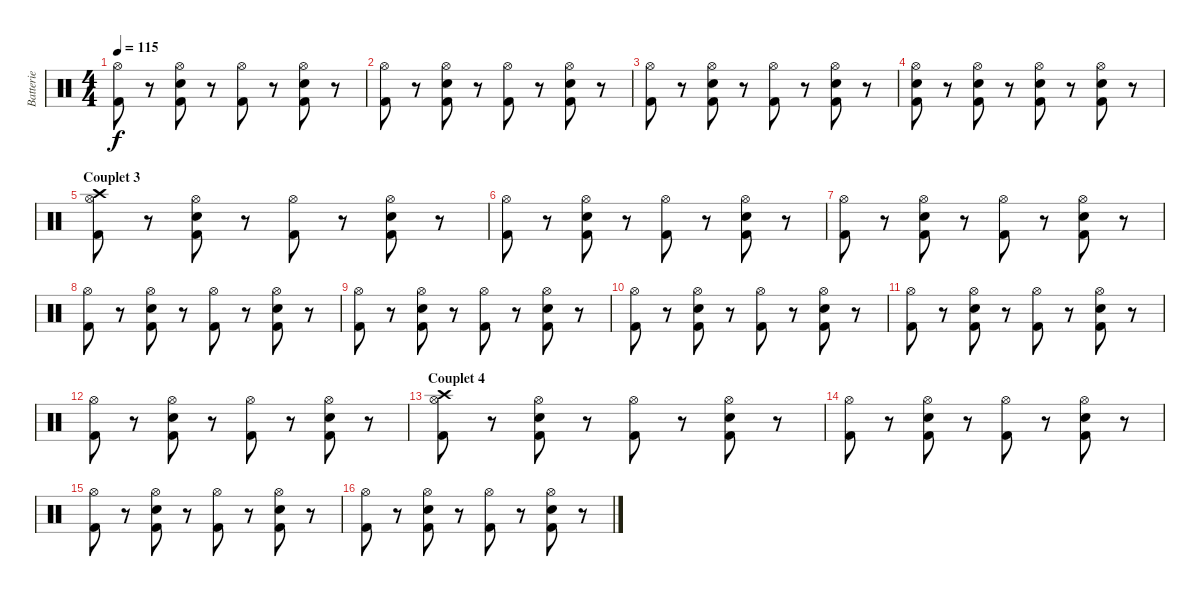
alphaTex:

\track ("Batterie" "Batterie") {instrument percussion}
\staff {score}
\articulation defaults
\ts (4 4)
\tempo 115
\clef neutral
\ks c
("Hi-Hat (open)" "Kick (hit) 2").8{dy f} r.8 ("Electric Snare (hit)" "Hi-Hat (open)" "Kick (hit) 2").8 r.8 ("Hi-Hat (open)" "Kick (hit) 2").8 r.8 ("Electric Snare (hit)" "Hi-Hat (open)" "Kick (hit) 2").8 r.8 |
("Hi-Hat (open)" "Kick (hit) 2").8 r.8 ("Electric Snare (hit)" "Hi-Hat (open)" "Kick (hit) 2").8 r.8 ("Hi-Hat (open)" "Kick (hit) 2").8 r.8 ("Electric Snare (hit)" "Hi-Hat (open)" "Kick (hit) 2").8 r.8 |
("Hi-Hat (open)" "Kick (hit) 2").8 r.8 ("Electric Snare (hit)" "Hi-Hat (open)" "Kick (hit) 2").8 r.8 ("Hi-Hat (open)" "Kick (hit) 2").8 r.8 ("Electric Snare (hit)" "Hi-Hat (open)" "Kick (hit) 2").8 r.8 |
("Electric Snare (hit)" "Hi-Hat (open)" "Kick (hit) 2").8 r.8 ("Electric Snare (hit)" "Hi-Hat (open)" "Kick (hit) 2").8 r.8 ("Electric Snare (hit)" "Hi-Hat (open)" "Kick (hit) 2").8 r.8 ("Electric Snare (hit)" "Hi-Hat (open)" "Kick (hit) 2").8 r.8 |
\section ("" "Couplet 3")
("Crash high (hit)" "Hi-Hat (open)" "Kick (hit) 2").8 r.8 ("Electric Snare (hit)" "Hi-Hat (open)" "Kick (hit) 2").8 r.8 ("Hi-Hat (open)" "Kick (hit) 2").8 r.8 ("Electric Snare (hit)" "Hi-Hat (open)" "Kick (hit) 2").8 r.8 |
("Hi-Hat (open)" "Kick (hit) 2").8 r.8 ("Electric Snare (hit)" "Hi-Hat (open)" "Kick (hit) 2").8 r.8 ("Hi-Hat (open)" "Kick (hit) 2").8 r.8 ("Electric Snare (hit)" "Hi-Hat (open)" "Kick (hit) 2").8 r.8 |
("Hi-Hat (open)" "Kick (hit) 2").8 r.8 ("Electric Snare (hit)" "Hi-Hat (open)" "Kick (hit) 2").8 r.8 ("Hi-Hat (open)" "Kick (hit) 2").8 r.8 ("Electric Snare (hit)" "Hi-Hat (open)" "Kick (hit) 2").8 r.8 |
("Hi-Hat (open)" "Kick (hit) 2").8 r.8 ("Electric Snare (hit)" "Hi-Hat (open)" "Kick (hit) 2").8 r.8 ("Hi-Hat (open)" "Kick (hit) 2").8 r.8 ("Electric Snare (hit)" "Hi-Hat (open)" "Kick (hit) 2").8 r.8 |
("Hi-Hat (open)" "Kick (hit) 2").8 r.8 ("Electric Snare (hit)" "Hi-Hat (open)" "Kick (hit) 2").8 r.8 ("Hi-Hat (open)" "Kick (hit) 2").8 r.8 ("Electric Snare (hit)" "Hi-Hat (open)" "Kick (hit) 2").8 r.8 |
("Hi-Hat (open)" "Kick (hit) 2").8 r.8 ("Electric Snare (hit)" "Hi-Hat (open)" "Kick (hit) 2").8 r.8 ("Hi-Hat (open)" "Kick (hit) 2").8 r.8 ("Electric Snare (hit)" "Hi-Hat (open)" "Kick (hit) 2").8 r.8 |
("Hi-Hat (open)" "Kick (hit) 2").8 r.8 ("Electric Snare (hit)" "Hi-Hat (open)" "Kick (hit) 2").8 r.8 ("Hi-Hat (open)" "Kick (hit) 2").8 r.8 ("Electric Snare (hit)" "Hi-Hat (open)" "Kick (hit) 2").8 r.8 |
("Hi-Hat (open)" "Kick (hit) 2").8 r.8 ("Electric Snare (hit)" "Hi-Hat (open)" "Kick (hit) 2").8 r.8 ("Hi-Hat (open)" "Kick (hit) 2").8 r.8 ("Electric Snare (hit)" "Hi-Hat (open)" "Kick (hit) 2").8 r.8 |
\section ("" "Couplet 4")
("Crash high (hit)" "Hi-Hat (open)" "Kick (hit) 2").8 r.8 ("Electric Snare (hit)" "Hi-Hat (open)" "Kick (hit) 2").8 r.8 ("Hi-Hat (open)" "Kick (hit) 2").8 r.8 ("Electric Snare (hit)" "Hi-Hat (open)" "Kick (hit) 2").8 r.8 |
("Hi-Hat (open)" "Kick (hit) 2").8 r.8 ("Electric Snare (hit)" "Hi-Hat (open)" "Kick (hit) 2").8 r.8 ("Hi-Hat (open)" "Kick (hit) 2").8 r.8 ("Electric Snare (hit)" "Hi-Hat (open)" "Kick (hit) 2").8 r.8 |
("Hi-Hat (open)" "Kick (hit) 2").8 r.8 ("Electric Snare (hit)" "Hi-Hat (open)" "Kick (hit) 2").8 r.8 ("Hi-Hat (open)" "Kick (hit) 2").8 r.8 ("Electric Snare (hit)" "Hi-Hat (open)" "Kick (hit) 2").8 r.8 |
("Hi-Hat (open)" "Kick (hit) 2").8 r.8 ("Electric Snare (hit)" "Hi-Hat (open)" "Kick (hit) 2").8 r.8 ("Hi-Hat (open)" "Kick (hit) 2").8 r.8 ("Electric Snare (hit)" "Hi-Hat (open)" "Kick (hit) 2").8 r.8
